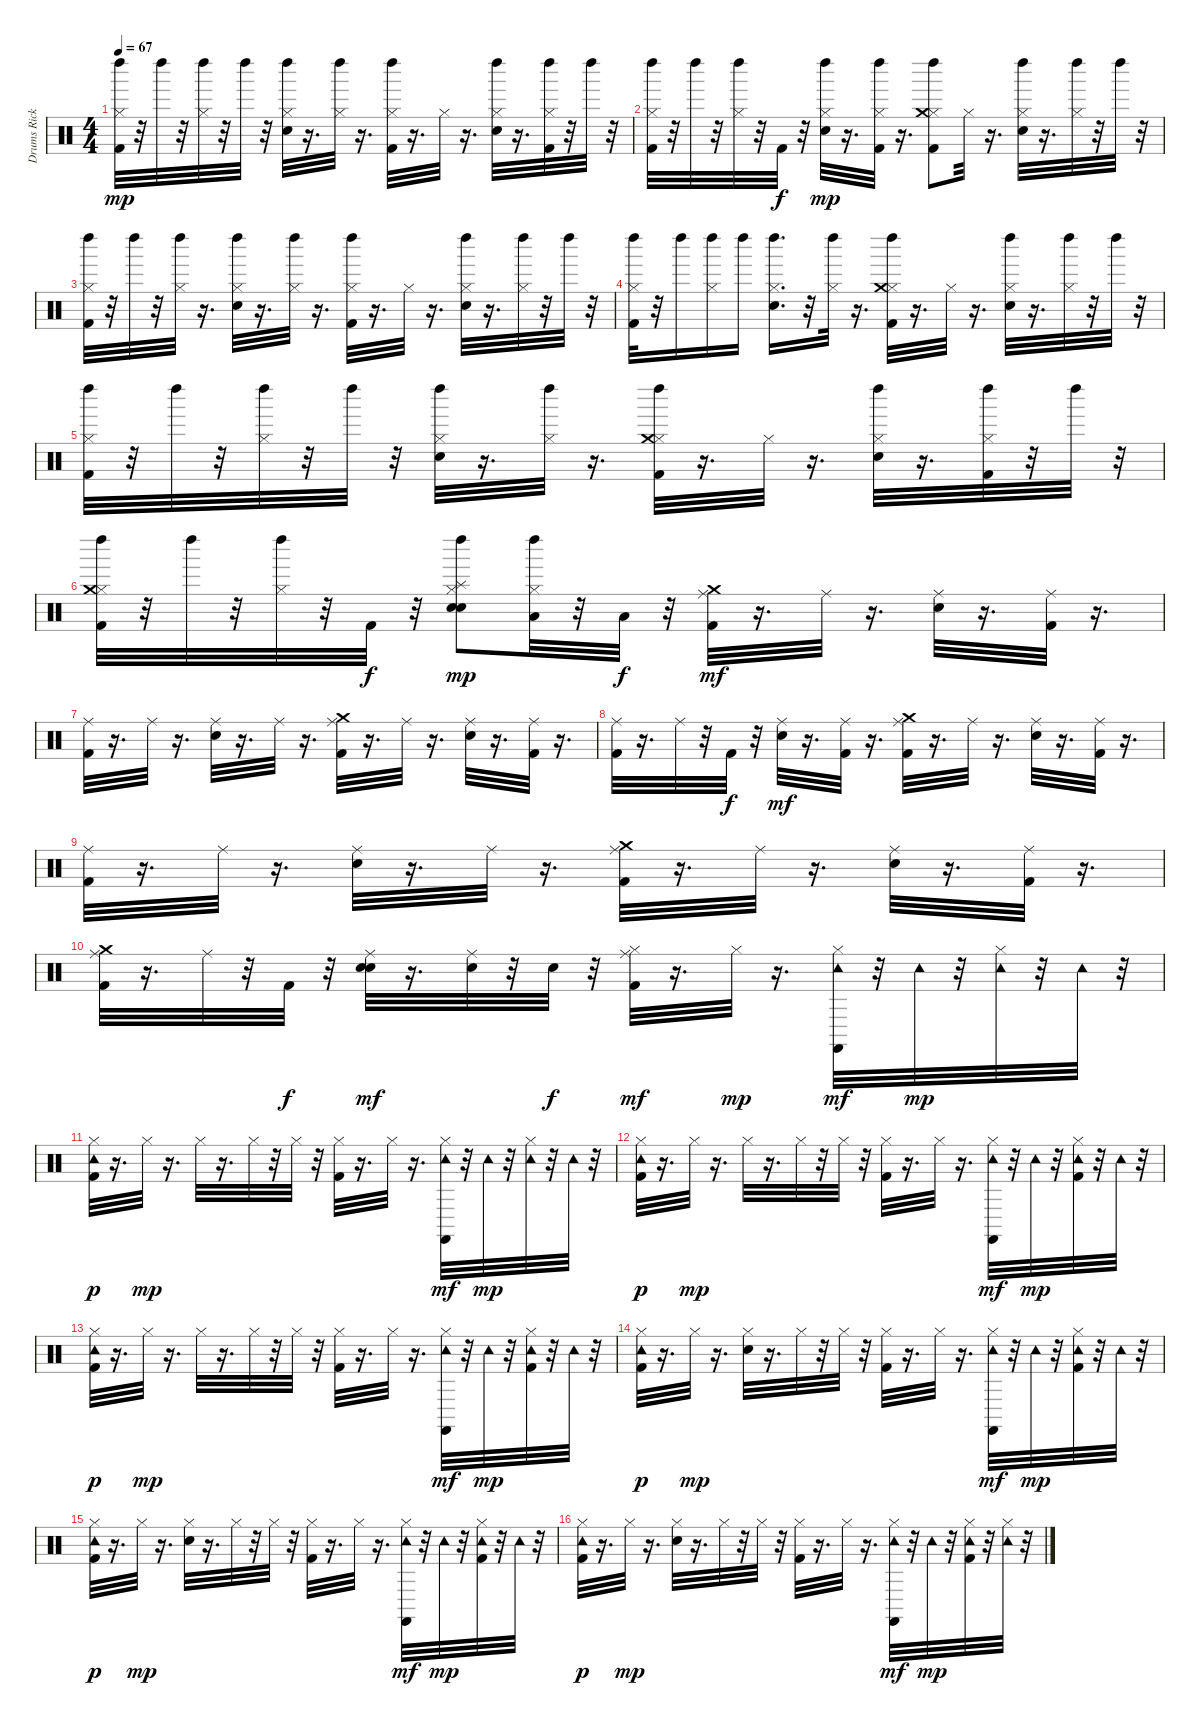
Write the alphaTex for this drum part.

\track ("Drums Rick Allen" "Drums Rick") {solo instrument percussion}
\staff {score}
\articulation defaults
\ts (4 4)
\tempo 67
\clef neutral
\ks c
("Hi-Hat (closed)" "Kick (hit) 2" "Left Maraca (hit)").32{dy mp} r.32 "Left Maraca (hit)".32 r.32 ("Hi-Hat (closed)" "Left Maraca (hit)").32 r.32 "Left Maraca (hit)".32 r.32 ("Hi-Hat (closed)" "Electric Snare (hit)" "Left Maraca (hit)").32 r.16{d} ("Hi-Hat (closed)" "Left Maraca (hit)").32 r.16{d} ("Hi-Hat (closed)" "Kick (hit) 2" "Left Maraca (hit)").32 r.16{d} "Hi-Hat (closed)".32 r.16{d} ("Hi-Hat (closed)" "Electric Snare (hit)" "Left Maraca (hit)").32 r.16{d} ("Hi-Hat (closed)" "Kick (hit) 2" "Left Maraca (hit)").32 r.32 "Left Maraca (hit)".32 r.32 |
("Hi-Hat (closed)" "Kick (hit) 2" "Left Maraca (hit)").32 r.32 "Left Maraca (hit)".32 r.32 ("Hi-Hat (closed)" "Left Maraca (hit)").32 r.32 "Kick (hit) 2".32{dy f} r.32 ("Hi-Hat (closed)" "Electric Snare (hit)" "Left Maraca (hit)").32{dy mp} r.16{d} ("Hi-Hat (closed)" "Kick (hit) 2" "Left Maraca (hit)").32 r.16{d} ("Hi-Hat (closed)" "Kick (hit) 2" "Crash medium (hit)" "Left Maraca (hit)").8 "Hi-Hat (closed)".32 r.16{d} ("Hi-Hat (closed)" "Electric Snare (hit)" "Left Maraca (hit)").32 r.16{d} ("Hi-Hat (closed)" "Left Maraca (hit)").32 r.32 "Left Maraca (hit)".32 r.32 |
("Hi-Hat (closed)" "Kick (hit) 2" "Left Maraca (hit)").32 r.32 "Left Maraca (hit)".32 r.32 ("Hi-Hat (closed)" "Left Maraca (hit)").32 r.16{d} ("Hi-Hat (closed)" "Electric Snare (hit)" "Left Maraca (hit)").32 r.16{d} ("Hi-Hat (closed)" "Left Maraca (hit)").32 r.16{d} ("Hi-Hat (closed)" "Kick (hit) 2" "Left Maraca (hit)").32 r.16{d} "Hi-Hat (closed)".32 r.16{d} ("Hi-Hat (closed)" "Electric Snare (hit)" "Left Maraca (hit)").32 r.16{d} ("Hi-Hat (closed)" "Left Maraca (hit)").32 r.32 "Left Maraca (hit)".32 r.32 |
("Hi-Hat (closed)" "Kick (hit) 2" "Left Maraca (hit)").32 r.32 "Left Maraca (hit)".16 ("Hi-Hat (closed)" "Left Maraca (hit)").16 "Left Maraca (hit)".16 ("Hi-Hat (closed)" "Electric Snare (hit)" "Left Maraca (hit)").16{d} r.32 ("Hi-Hat (closed)" "Left Maraca (hit)").32 r.16{d} ("Hi-Hat (closed)" "Kick (hit) 2" "Crash medium (hit)" "Left Maraca (hit)").32 r.16{d} "Hi-Hat (closed)".32 r.16{d} ("Hi-Hat (closed)" "Electric Snare (hit)" "Left Maraca (hit)").32 r.16{d} ("Hi-Hat (closed)" "Left Maraca (hit)").32 r.32 "Left Maraca (hit)".32 r.32 |
("Hi-Hat (closed)" "Kick (hit) 2" "Left Maraca (hit)").32 r.32 "Left Maraca (hit)".32 r.32 ("Hi-Hat (closed)" "Left Maraca (hit)").32 r.32 "Left Maraca (hit)".32 r.32 ("Hi-Hat (closed)" "Electric Snare (hit)" "Left Maraca (hit)").32 r.16{d} ("Hi-Hat (closed)" "Left Maraca (hit)").32 r.16{d} ("Hi-Hat (closed)" "Kick (hit) 2" "Crash medium (hit)" "Left Maraca (hit)").32 r.16{d} "Hi-Hat (closed)".32 r.16{d} ("Hi-Hat (closed)" "Electric Snare (hit)" "Left Maraca (hit)").32 r.16{d} ("Hi-Hat (closed)" "Kick (hit) 2" "Left Maraca (hit)").32 r.32 "Left Maraca (hit)".32 r.32 |
("Hi-Hat (closed)" "Kick (hit) 2" "Crash medium (hit)" "Left Maraca (hit)").32 r.32 "Left Maraca (hit)".32 r.32 ("Hi-Hat (closed)" "Left Maraca (hit)").32 r.32 "Kick (hit) 2".32{dy f} r.32 ("Electric Snare (hit)" "Hi-Hat (closed)" "Electric Snare (hit)" "Splash (hit)" "Left Maraca (hit)").8{dy mp} ("Hi-Hat (closed)" "Low Tom (hit)" "Left Maraca (hit)").32 r.32 "Low Floor Tom (hit)".32{dy f} r.32 ("Kick (hit) 2" "Ride (middle)" "Crash medium (hit)").32{dy mf} r.16{d} "Ride (middle)".32 r.16{d} ("Electric Snare (hit)" "Ride (middle)").32 r.16{d} ("Kick (hit) 2" "Ride (middle)").32 r.16{d} |
("Kick (hit) 2" "Ride (middle)").32 r.16{d} "Ride (middle)".32 r.16{d} ("Electric Snare (hit)" "Ride (middle)").32 r.16{d} "Ride (middle)".32 r.16{d} ("Kick (hit) 2" "Ride (middle)" "Crash medium (hit)").32 r.16{d} "Ride (middle)".32 r.16{d} ("Electric Snare (hit)" "Ride (middle)").32 r.16{d} ("Kick (hit) 2" "Ride (middle)").32 r.16{d} |
("Kick (hit) 2" "Ride (middle)").32 r.16{d} "Ride (middle)".32 r.32 "Kick (hit) 2".32{dy f} r.32 ("Electric Snare (hit)" "Ride (middle)").32{dy mf} r.16{d} ("Kick (hit) 2" "Ride (middle)").32 r.16{d} ("Kick (hit) 2" "Ride (middle)" "Crash medium (hit)").32 r.16{d} "Ride (middle)".32 r.16{d} ("Electric Snare (hit)" "Ride (middle)").32 r.16{d} ("Kick (hit) 2" "Ride (middle)").32 r.16{d} |
("Kick (hit) 2" "Ride (middle)").32 r.16{d} "Ride (middle)".32 r.16{d} ("Electric Snare (hit)" "Ride (middle)").32 r.16{d} "Ride (middle)".32 r.16{d} ("Kick (hit) 2" "Ride (middle)" "Crash medium (hit)").32 r.16{d} "Ride (middle)".32 r.16{d} ("Electric Snare (hit)" "Ride (middle)").32 r.16{d} ("Kick (hit) 2" "Ride (middle)").32 r.16{d} |
("Kick (hit) 2" "Ride (middle)" "Crash medium (hit)").32 r.16{d} "Ride (middle)".32 r.32 "Kick (hit) 2".32{dy f} r.32 ("Electric Snare (hit)" "Electric Snare (hit)" "Ride (middle)").32{dy mf} r.16{d} ("Electric Snare (hit)" "Ride (middle)").32 r.32 "Electric Snare (hit)".32{dy f} r.32 ("Kick (hit) 2" "Hi-Hat (closed)" "Ride (middle)").32{dy mf} r.16{d} "Hi-Hat (closed)".32{dy mp} r.16{d} ("Castanets (hit)" "Hi-Hat (closed)" "Tambourine (hit)").32{dy mf} r.32 "Tambourine (hit)".32{dy mp} r.32 ("Hi-Hat (closed)" "Tambourine (hit)").32 r.32 "Tambourine (hit)".32 r.32 |
("Kick (hit) 2" "Hi-Hat (closed)" "Tambourine (hit)").32{dy p} r.16{d} "Hi-Hat (closed)".32{dy mp} r.16{d} "Hi-Hat (closed)".32 r.16{d} "Hi-Hat (closed)".32 r.32 "Hi-Hat (closed)".32 r.32 ("Kick (hit) 2" "Hi-Hat (closed)").32 r.16{d} "Hi-Hat (closed)".32 r.16{d} ("Castanets (hit)" "Hi-Hat (closed)" "Tambourine (hit)").32{dy mf} r.32 "Tambourine (hit)".32{dy mp} r.32 ("Hi-Hat (closed)" "Tambourine (hit)").32 r.32 "Tambourine (hit)".32 r.32 |
("Kick (hit) 2" "Hi-Hat (closed)" "Tambourine (hit)").32{dy p} r.16{d} "Hi-Hat (closed)".32{dy mp} r.16{d} "Hi-Hat (closed)".32 r.16{d} "Hi-Hat (closed)".32 r.32 "Hi-Hat (closed)".32 r.32 ("Kick (hit) 2" "Hi-Hat (closed)").32 r.16{d} "Hi-Hat (closed)".32 r.16{d} ("Castanets (hit)" "Hi-Hat (closed)" "Tambourine (hit)").32{dy mf} r.32 "Tambourine (hit)".32{dy mp} r.32 ("Kick (hit) 2" "Hi-Hat (closed)" "Tambourine (hit)").32 r.32 "Tambourine (hit)".32 r.32 |
("Kick (hit) 2" "Hi-Hat (closed)" "Tambourine (hit)").32{dy p} r.16{d} "Hi-Hat (closed)".32{dy mp} r.16{d} "Hi-Hat (closed)".32 r.16{d} "Hi-Hat (closed)".32 r.32 "Hi-Hat (closed)".32 r.32 ("Kick (hit) 2" "Hi-Hat (closed)").32 r.16{d} "Hi-Hat (closed)".32 r.16{d} ("Hi-Hat (closed)" "Tambourine (hit)" "Castanets (hit)").32{dy mf} r.32 "Tambourine (hit)".32{dy mp} r.32 ("Kick (hit) 2" "Hi-Hat (closed)" "Tambourine (hit)").32 r.32 "Tambourine (hit)".32 r.32 |
("Kick (hit) 2" "Hi-Hat (closed)" "Tambourine (hit)").32{dy p} r.16{d} "Hi-Hat (closed)".32{dy mp} r.16{d} ("Electric Snare (hit)" "Hi-Hat (closed)").32 r.16{d} "Hi-Hat (closed)".32 r.32 "Hi-Hat (closed)".32 r.32 ("Kick (hit) 2" "Hi-Hat (closed)").32 r.16{d} "Hi-Hat (closed)".32 r.16{d} ("Hi-Hat (closed)" "Tambourine (hit)" "Castanets (hit)").32{dy mf} r.32 "Tambourine (hit)".32{dy mp} r.32 ("Kick (hit) 2" "Hi-Hat (closed)" "Tambourine (hit)").32 r.32 "Tambourine (hit)".32 r.32 |
("Kick (hit) 2" "Hi-Hat (closed)" "Tambourine (hit)").32{dy p} r.16{d} "Hi-Hat (closed)".32{dy mp} r.16{d} ("Electric Snare (hit)" "Hi-Hat (closed)").32 r.16{d} "Hi-Hat (closed)".32 r.32 "Hi-Hat (closed)".32 r.32 ("Kick (hit) 2" "Hi-Hat (closed)").32 r.16{d} "Hi-Hat (closed)".32 r.16{d} ("Hi-Hat (closed)" "Tambourine (hit)" "Castanets (hit)").32{dy mf} r.32 "Tambourine (hit)".32{dy mp} r.32 ("Kick (hit) 2" "Hi-Hat (closed)" "Tambourine (hit)").32 r.32 "Tambourine (hit)".32 r.32 |
("Kick (hit) 2" "Hi-Hat (closed)" "Tambourine (hit)").32{dy p} r.16{d} "Hi-Hat (closed)".32{dy mp} r.16{d} ("Electric Snare (hit)" "Hi-Hat (closed)").32 r.16{d} "Hi-Hat (closed)".32 r.32 "Hi-Hat (closed)".32 r.32 ("Kick (hit) 2" "Hi-Hat (closed)").32 r.16{d} "Hi-Hat (closed)".32 r.16{d} ("Hi-Hat (closed)" "Tambourine (hit)" "Castanets (hit)").32{dy mf} r.32 "Tambourine (hit)".32{dy mp} r.32 ("Kick (hit) 2" "Tambourine (hit)" "Hi-Hat (closed)").32 r.32 ("Tambourine (hit)" "Hi-Hat (closed)").32 r.32
